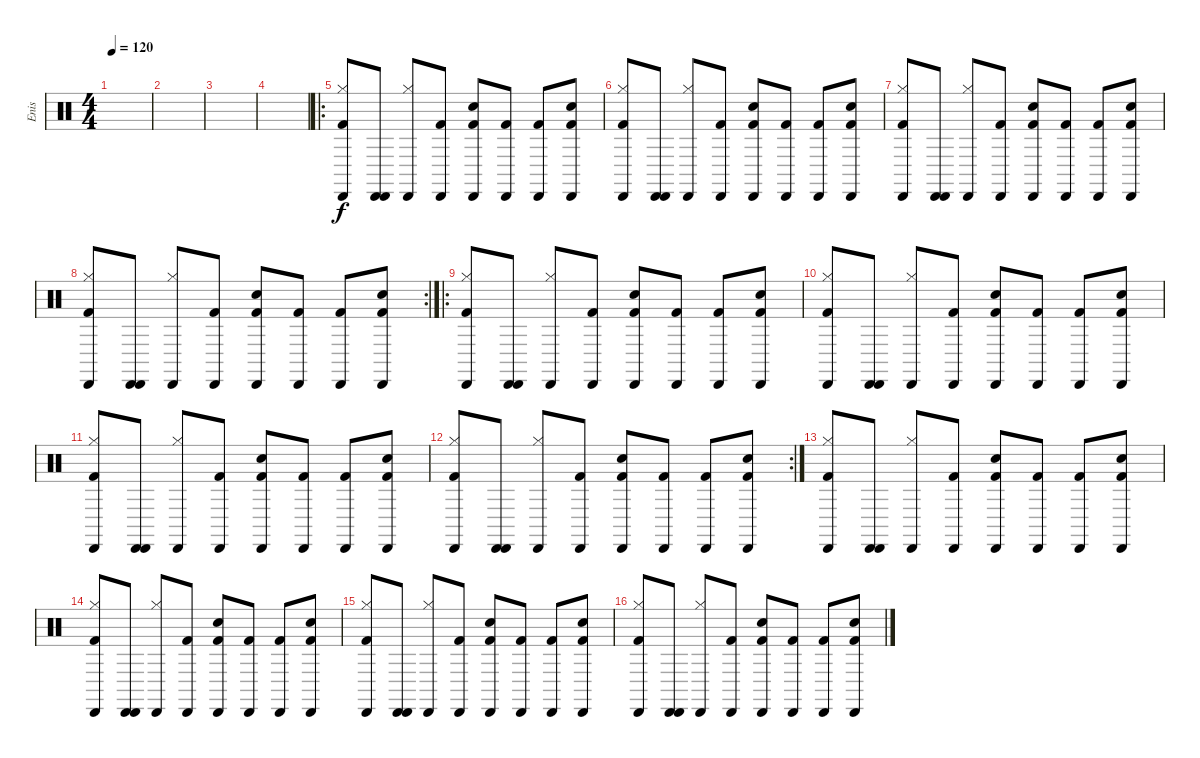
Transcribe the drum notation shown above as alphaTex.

\track ("Enis" "Enis") {instrument percussion}
\staff {score}
\articulation defaults
\ts (4 4)
\tempo 120
\clef neutral
\ks c
|
|
|
|
\ro
("Kick (hit) 2" "Hi-Hat (closed)" "Cabasa (hit)").8 ("Cabasa (hit)" "Cabasa (hit)").8 ("Cabasa (hit)" "Hi-Hat (closed)").8 ("Kick (hit) 2" "Cabasa (hit)").8 ("Kick (hit) 2" "Snare (hit) 2" "Cabasa (hit)").8 ("Kick (hit) 2" "Cabasa (hit)").8 ("Kick (hit) 2" "Cabasa (hit)").8 ("Kick (hit) 2" "Cabasa (hit)" "Snare (hit) 2").8 |
("Kick (hit) 2" "Hi-Hat (closed)" "Cabasa (hit)").8 ("Cabasa (hit)" "Cabasa (hit)").8 ("Cabasa (hit)" "Hi-Hat (closed)").8 ("Kick (hit) 2" "Cabasa (hit)").8 ("Kick (hit) 2" "Snare (hit) 2" "Cabasa (hit)").8 ("Kick (hit) 2" "Cabasa (hit)").8 ("Kick (hit) 2" "Cabasa (hit)").8 ("Kick (hit) 2" "Cabasa (hit)" "Snare (hit) 2").8 |
("Kick (hit) 2" "Hi-Hat (closed)" "Cabasa (hit)").8 ("Cabasa (hit)" "Cabasa (hit)").8 ("Cabasa (hit)" "Hi-Hat (closed)").8 ("Kick (hit) 2" "Cabasa (hit)").8 ("Kick (hit) 2" "Snare (hit) 2" "Cabasa (hit)").8 ("Kick (hit) 2" "Cabasa (hit)").8 ("Kick (hit) 2" "Cabasa (hit)").8 ("Kick (hit) 2" "Cabasa (hit)" "Snare (hit) 2").8 |
\rc 2
("Kick (hit) 2" "Hi-Hat (closed)" "Cabasa (hit)").8 ("Cabasa (hit)" "Cabasa (hit)").8 ("Cabasa (hit)" "Hi-Hat (closed)").8 ("Kick (hit) 2" "Cabasa (hit)").8 ("Kick (hit) 2" "Snare (hit) 2" "Cabasa (hit)").8 ("Kick (hit) 2" "Cabasa (hit)").8 ("Kick (hit) 2" "Cabasa (hit)").8 ("Kick (hit) 2" "Cabasa (hit)" "Snare (hit) 2").8 |
\ro
("Kick (hit) 2" "Hi-Hat (closed)" "Cabasa (hit)").8 ("Cabasa (hit)" "Cabasa (hit)").8 ("Cabasa (hit)" "Hi-Hat (closed)").8 ("Kick (hit) 2" "Cabasa (hit)").8 ("Kick (hit) 2" "Snare (hit) 2" "Cabasa (hit)").8 ("Kick (hit) 2" "Cabasa (hit)").8 ("Kick (hit) 2" "Cabasa (hit)").8 ("Kick (hit) 2" "Cabasa (hit)" "Snare (hit) 2").8 |
("Kick (hit) 2" "Hi-Hat (closed)" "Cabasa (hit)").8 ("Cabasa (hit)" "Cabasa (hit)").8 ("Cabasa (hit)" "Hi-Hat (closed)").8 ("Kick (hit) 2" "Cabasa (hit)").8 ("Kick (hit) 2" "Snare (hit) 2" "Cabasa (hit)").8 ("Kick (hit) 2" "Cabasa (hit)").8 ("Kick (hit) 2" "Cabasa (hit)").8 ("Kick (hit) 2" "Cabasa (hit)" "Snare (hit) 2").8 |
("Kick (hit) 2" "Hi-Hat (closed)" "Cabasa (hit)").8 ("Cabasa (hit)" "Cabasa (hit)").8 ("Cabasa (hit)" "Hi-Hat (closed)").8 ("Kick (hit) 2" "Cabasa (hit)").8 ("Kick (hit) 2" "Snare (hit) 2" "Cabasa (hit)").8 ("Kick (hit) 2" "Cabasa (hit)").8 ("Kick (hit) 2" "Cabasa (hit)").8 ("Kick (hit) 2" "Cabasa (hit)" "Snare (hit) 2").8 |
\rc 2
("Kick (hit) 2" "Hi-Hat (closed)" "Cabasa (hit)").8 ("Cabasa (hit)" "Cabasa (hit)").8 ("Cabasa (hit)" "Hi-Hat (closed)").8 ("Kick (hit) 2" "Cabasa (hit)").8 ("Kick (hit) 2" "Snare (hit) 2" "Cabasa (hit)").8 ("Kick (hit) 2" "Cabasa (hit)").8 ("Kick (hit) 2" "Cabasa (hit)").8 ("Kick (hit) 2" "Cabasa (hit)" "Snare (hit) 2").8 |
("Kick (hit) 2" "Hi-Hat (closed)" "Cabasa (hit)").8 ("Cabasa (hit)" "Cabasa (hit)").8 ("Cabasa (hit)" "Hi-Hat (closed)").8 ("Kick (hit) 2" "Cabasa (hit)").8 ("Kick (hit) 2" "Snare (hit) 2" "Cabasa (hit)").8 ("Kick (hit) 2" "Cabasa (hit)").8 ("Kick (hit) 2" "Cabasa (hit)").8 ("Kick (hit) 2" "Cabasa (hit)" "Snare (hit) 2").8 |
("Kick (hit) 2" "Hi-Hat (closed)" "Cabasa (hit)").8 ("Cabasa (hit)" "Cabasa (hit)").8 ("Cabasa (hit)" "Hi-Hat (closed)").8 ("Kick (hit) 2" "Cabasa (hit)").8 ("Kick (hit) 2" "Snare (hit) 2" "Cabasa (hit)").8 ("Kick (hit) 2" "Cabasa (hit)").8 ("Kick (hit) 2" "Cabasa (hit)").8 ("Kick (hit) 2" "Cabasa (hit)" "Snare (hit) 2").8 |
("Kick (hit) 2" "Hi-Hat (closed)" "Cabasa (hit)").8 ("Cabasa (hit)" "Cabasa (hit)").8 ("Cabasa (hit)" "Hi-Hat (closed)").8 ("Kick (hit) 2" "Cabasa (hit)").8 ("Kick (hit) 2" "Snare (hit) 2" "Cabasa (hit)").8 ("Kick (hit) 2" "Cabasa (hit)").8 ("Kick (hit) 2" "Cabasa (hit)").8 ("Kick (hit) 2" "Cabasa (hit)" "Snare (hit) 2").8 |
("Kick (hit) 2" "Hi-Hat (closed)" "Cabasa (hit)").8 ("Cabasa (hit)" "Cabasa (hit)").8 ("Cabasa (hit)" "Hi-Hat (closed)").8 ("Kick (hit) 2" "Cabasa (hit)").8 ("Kick (hit) 2" "Snare (hit) 2" "Cabasa (hit)").8 ("Kick (hit) 2" "Cabasa (hit)").8 ("Kick (hit) 2" "Cabasa (hit)").8 ("Kick (hit) 2" "Cabasa (hit)" "Snare (hit) 2").8
